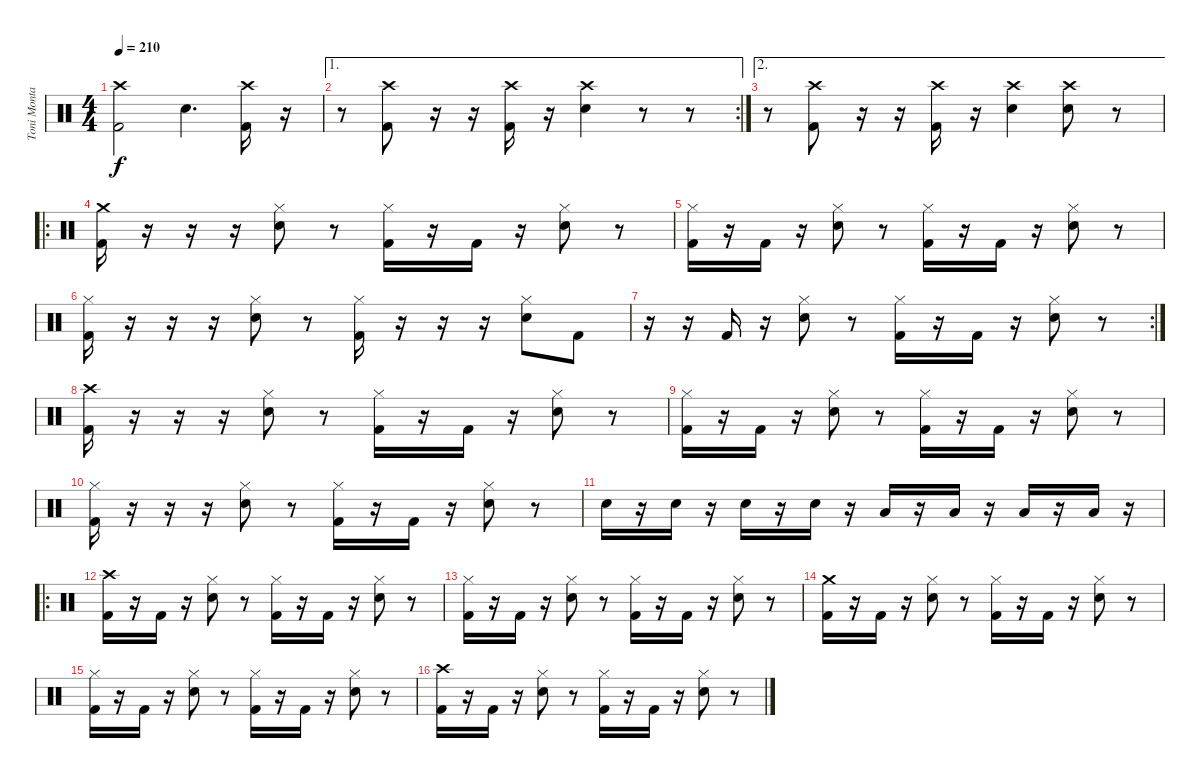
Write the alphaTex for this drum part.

\track ("Toni Montalvo" "Toni Monta") {solo instrument percussion}
\staff {score}
\articulation defaults
\ts (4 4)
\tempo 210
\clef neutral
\ks c
("Crash high (hit)" "Kick (hit) 2").2{dy f} "Electric Snare (hit)".4{d} ("Crash high (hit)" "Kick (hit) 2").16 r.16 |
\ae 1
\rc 2
r.8 ("Crash high (hit)" "Kick (hit) 2").8 r.16 r.16 ("Crash high (hit)" "Kick (hit) 2").16 r.16 ("Crash high (hit)" "Electric Snare (hit)").4 r.8 r.8 |
\ae 2
r.8 ("Kick (hit) 2" "Crash high (hit)").8 r.16 r.16 ("Kick (hit) 2" "Crash high (hit)").16 r.16 ("Electric Snare (hit)" "Crash high (hit)").4 ("Electric Snare (hit)" "Crash high (hit)").8 r.8 |
\ro
("Kick (hit) 2" "Crash medium (hit)").16 r.16 r.16 r.16 ("Electric Snare (hit)" "Hi-Hat (closed)").8 r.8 ("Kick (hit) 2" "Hi-Hat (closed)").16 r.16 "Kick (hit) 2".16 r.16 ("Electric Snare (hit)" "Hi-Hat (closed)").8 r.8 |
("Kick (hit) 2" "Hi-Hat (closed)").16 r.16 "Kick (hit) 2".16 r.16 ("Electric Snare (hit)" "Hi-Hat (closed)").8 r.8 ("Kick (hit) 2" "Hi-Hat (closed)").16 r.16 "Kick (hit) 2".16 r.16 ("Electric Snare (hit)" "Hi-Hat (closed)").8 r.8 |
("Kick (hit) 2" "Hi-Hat (closed)").16 r.16 r.16 r.16 ("Electric Snare (hit)" "Hi-Hat (closed)").8 r.8 ("Kick (hit) 2" "Hi-Hat (closed)").16 r.16 r.16 r.16 ("Electric Snare (hit)" "Hi-Hat (closed)").8 "Kick (hit) 2".8 |
\rc 2
r.16 r.16 "Kick (hit) 2".16 r.16 ("Electric Snare (hit)" "Hi-Hat (closed)").8 r.8 ("Kick (hit) 2" "Hi-Hat (closed)").16 r.16 "Kick (hit) 2".16 r.16 ("Electric Snare (hit)" "Hi-Hat (closed)").8 r.8 |
("Kick (hit) 2" "Crash high (hit)").16 r.16 r.16 r.16 ("Electric Snare (hit)" "Hi-Hat (closed)").8 r.8 ("Kick (hit) 2" "Hi-Hat (closed)").16 r.16 "Kick (hit) 2".16 r.16 ("Electric Snare (hit)" "Hi-Hat (closed)").8 r.8 |
("Kick (hit) 2" "Hi-Hat (closed)").16 r.16 "Kick (hit) 2".16 r.16 ("Electric Snare (hit)" "Hi-Hat (closed)").8 r.8 ("Kick (hit) 2" "Hi-Hat (closed)").16 r.16 "Kick (hit) 2".16 r.16 ("Electric Snare (hit)" "Hi-Hat (closed)").8 r.8 |
("Kick (hit) 2" "Hi-Hat (closed)").16 r.16 r.16 r.16 ("Electric Snare (hit)" "Hi-Hat (closed)").8 r.8 ("Kick (hit) 2" "Hi-Hat (closed)").16 r.16 "Kick (hit) 2".16 r.16 ("Electric Snare (hit)" "Hi-Hat (closed)").8 r.8 |
"Electric Snare (hit)".16 r.16 "Electric Snare (hit)".16 r.16 "Electric Snare (hit)".16 r.16 "Electric Snare (hit)".16 r.16 "Low Tom (hit)".16 r.16 "Low Tom (hit)".16 r.16 "Low Tom (hit)".16 r.16 "Low Tom (hit)".16 r.16 |
\ro
("Kick (hit) 2" "Crash high (hit)").16 r.16 "Kick (hit) 2".16 r.16 ("Electric Snare (hit)" "Hi-Hat (closed)").8 r.8 ("Kick (hit) 2" "Hi-Hat (closed)").16 r.16 "Kick (hit) 2".16 r.16 ("Electric Snare (hit)" "Hi-Hat (closed)").8 r.8 |
("Kick (hit) 2" "Hi-Hat (closed)").16 r.16 "Kick (hit) 2".16 r.16 ("Electric Snare (hit)" "Hi-Hat (closed)").8 r.8 ("Kick (hit) 2" "Hi-Hat (closed)").16 r.16 "Kick (hit) 2".16 r.16 ("Electric Snare (hit)" "Hi-Hat (closed)").8 r.8 |
("Kick (hit) 2" "Crash medium (hit)").16 r.16 "Kick (hit) 2".16 r.16 ("Electric Snare (hit)" "Hi-Hat (closed)").8 r.8 ("Kick (hit) 2" "Hi-Hat (closed)").16 r.16 "Kick (hit) 2".16 r.16 ("Electric Snare (hit)" "Hi-Hat (closed)").8 r.8 |
("Kick (hit) 2" "Hi-Hat (closed)").16 r.16 "Kick (hit) 2".16 r.16 ("Electric Snare (hit)" "Hi-Hat (closed)").8 r.8 ("Kick (hit) 2" "Hi-Hat (closed)").16 r.16 "Kick (hit) 2".16 r.16 ("Electric Snare (hit)" "Hi-Hat (closed)").8 r.8 |
("Kick (hit) 2" "Crash high (hit)").16 r.16 "Kick (hit) 2".16 r.16 ("Electric Snare (hit)" "Hi-Hat (closed)").8 r.8 ("Kick (hit) 2" "Hi-Hat (closed)").16 r.16 "Kick (hit) 2".16 r.16 ("Electric Snare (hit)" "Hi-Hat (closed)").8 r.8
